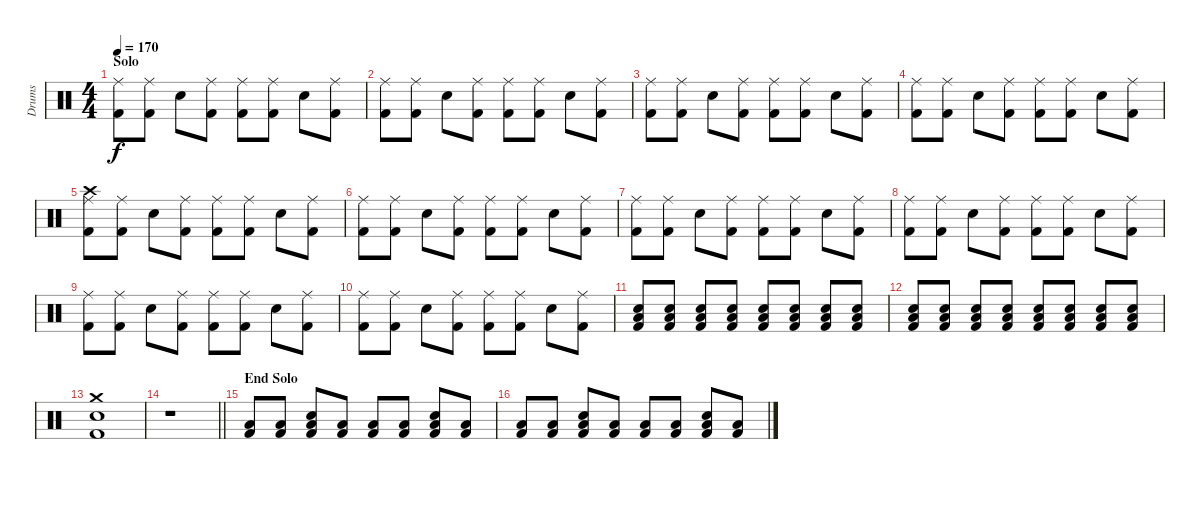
\track ("Drums" "Drums") {instrument percussion}
\staff {score}
\articulation defaults
\ts (4 4)
\section ("" "Solo")
\tempo 170
\clef neutral
\ks c
("Ride (middle)" "Kick (hit) 2").8{dy f} ("Ride (middle)" "Kick (hit) 2").8 "Snare (hit) 2".8 ("Ride (middle)" "Kick (hit) 2").8 ("Ride (middle)" "Kick (hit) 2").8 ("Ride (middle)" "Kick (hit) 2").8 "Snare (hit) 2".8 ("Ride (middle)" "Kick (hit) 2").8 |
("Ride (middle)" "Kick (hit) 2").8 ("Ride (middle)" "Kick (hit) 2").8 "Snare (hit) 2".8 ("Ride (middle)" "Kick (hit) 2").8 ("Ride (middle)" "Kick (hit) 2").8 ("Ride (middle)" "Kick (hit) 2").8 "Snare (hit) 2".8 ("Ride (middle)" "Kick (hit) 2").8 |
("Ride (middle)" "Kick (hit) 2").8 ("Ride (middle)" "Kick (hit) 2").8 "Snare (hit) 2".8 ("Ride (middle)" "Kick (hit) 2").8 ("Ride (middle)" "Kick (hit) 2").8 ("Ride (middle)" "Kick (hit) 2").8 "Snare (hit) 2".8 ("Ride (middle)" "Kick (hit) 2").8 |
("Ride (middle)" "Kick (hit) 2").8 ("Ride (middle)" "Kick (hit) 2").8 "Snare (hit) 2".8 ("Ride (middle)" "Kick (hit) 2").8 ("Ride (middle)" "Kick (hit) 2").8 ("Ride (middle)" "Kick (hit) 2").8 "Snare (hit) 2".8 ("Ride (middle)" "Kick (hit) 2").8 |
("Ride (middle)" "Crash high (hit)" "Kick (hit) 2").8 ("Ride (middle)" "Kick (hit) 2").8 "Snare (hit) 2".8 ("Ride (middle)" "Kick (hit) 2").8 ("Ride (middle)" "Kick (hit) 2").8 ("Ride (middle)" "Kick (hit) 2").8 "Snare (hit) 2".8 ("Ride (middle)" "Kick (hit) 2").8 |
("Ride (middle)" "Kick (hit) 2").8 ("Ride (middle)" "Kick (hit) 2").8 "Snare (hit) 2".8 ("Ride (middle)" "Kick (hit) 2").8 ("Ride (middle)" "Kick (hit) 2").8 ("Ride (middle)" "Kick (hit) 2").8 "Snare (hit) 2".8 ("Ride (middle)" "Kick (hit) 2").8 |
("Ride (middle)" "Kick (hit) 2").8 ("Ride (middle)" "Kick (hit) 2").8 "Snare (hit) 2".8 ("Ride (middle)" "Kick (hit) 2").8 ("Ride (middle)" "Kick (hit) 2").8 ("Ride (middle)" "Kick (hit) 2").8 "Snare (hit) 2".8 ("Ride (middle)" "Kick (hit) 2").8 |
("Ride (middle)" "Kick (hit) 2").8 ("Ride (middle)" "Kick (hit) 2").8 "Snare (hit) 2".8 ("Ride (middle)" "Kick (hit) 2").8 ("Ride (middle)" "Kick (hit) 2").8 ("Ride (middle)" "Kick (hit) 2").8 "Snare (hit) 2".8 ("Ride (middle)" "Kick (hit) 2").8 |
("Ride (middle)" "Kick (hit) 2").8 ("Ride (middle)" "Kick (hit) 2").8 "Snare (hit) 2".8 ("Ride (middle)" "Kick (hit) 2").8 ("Ride (middle)" "Kick (hit) 2").8 ("Ride (middle)" "Kick (hit) 2").8 "Snare (hit) 2".8 ("Ride (middle)" "Kick (hit) 2").8 |
("Ride (middle)" "Kick (hit) 2").8 ("Ride (middle)" "Kick (hit) 2").8 "Snare (hit) 2".8 ("Ride (middle)" "Kick (hit) 2").8 ("Ride (middle)" "Kick (hit) 2").8 ("Ride (middle)" "Kick (hit) 2").8 "Snare (hit) 2".8 ("Ride (middle)" "Kick (hit) 2").8 |
("Low Floor Tom (hit)" "Snare (hit) 2" "Kick (hit) 2").8 ("Low Floor Tom (hit)" "Snare (hit) 2" "Kick (hit) 2").8 ("Low Floor Tom (hit)" "Snare (hit) 2" "Kick (hit) 2").8 ("Low Floor Tom (hit)" "Snare (hit) 2" "Kick (hit) 2").8 ("Low Floor Tom (hit)" "Snare (hit) 2" "Kick (hit) 2").8 ("Low Floor Tom (hit)" "Snare (hit) 2" "Kick (hit) 2").8 ("Low Floor Tom (hit)" "Snare (hit) 2" "Kick (hit) 2").8 ("Low Floor Tom (hit)" "Snare (hit) 2" "Kick (hit) 2").8 |
("Low Floor Tom (hit)" "Snare (hit) 2" "Kick (hit) 2").8 ("Low Floor Tom (hit)" "Snare (hit) 2" "Kick (hit) 2").8 ("Low Floor Tom (hit)" "Snare (hit) 2" "Kick (hit) 2").8 ("Low Floor Tom (hit)" "Snare (hit) 2" "Kick (hit) 2").8 ("Low Floor Tom (hit)" "Snare (hit) 2" "Kick (hit) 2").8 ("Low Floor Tom (hit)" "Snare (hit) 2" "Kick (hit) 2").8 ("Low Floor Tom (hit)" "Snare (hit) 2" "Kick (hit) 2").8 ("Low Floor Tom (hit)" "Snare (hit) 2" "Kick (hit) 2").8 |
("Crash medium (hit)" "Snare (hit) 2" "Kick (hit) 2").1 |
\barLineRight lightlight
r.1 |
\section ("" "End Solo")
("Low Floor Tom (hit)" "Kick (hit) 2").8 ("Low Floor Tom (hit)" "Kick (hit) 2").8 ("Low Floor Tom (hit)" "Snare (hit) 2" "Kick (hit) 2").8 ("Low Floor Tom (hit)" "Kick (hit) 2").8 ("Low Floor Tom (hit)" "Kick (hit) 2").8 ("Low Floor Tom (hit)" "Kick (hit) 2").8 ("Low Floor Tom (hit)" "Snare (hit) 2" "Kick (hit) 2").8 ("Low Floor Tom (hit)" "Kick (hit) 2").8 |
("Low Floor Tom (hit)" "Kick (hit) 2").8 ("Low Floor Tom (hit)" "Kick (hit) 2").8 ("Low Floor Tom (hit)" "Snare (hit) 2" "Kick (hit) 2").8 ("Low Floor Tom (hit)" "Kick (hit) 2").8 ("Low Floor Tom (hit)" "Kick (hit) 2").8 ("Low Floor Tom (hit)" "Kick (hit) 2").8 ("Low Floor Tom (hit)" "Snare (hit) 2" "Kick (hit) 2").8 ("Low Floor Tom (hit)" "Kick (hit) 2").8
